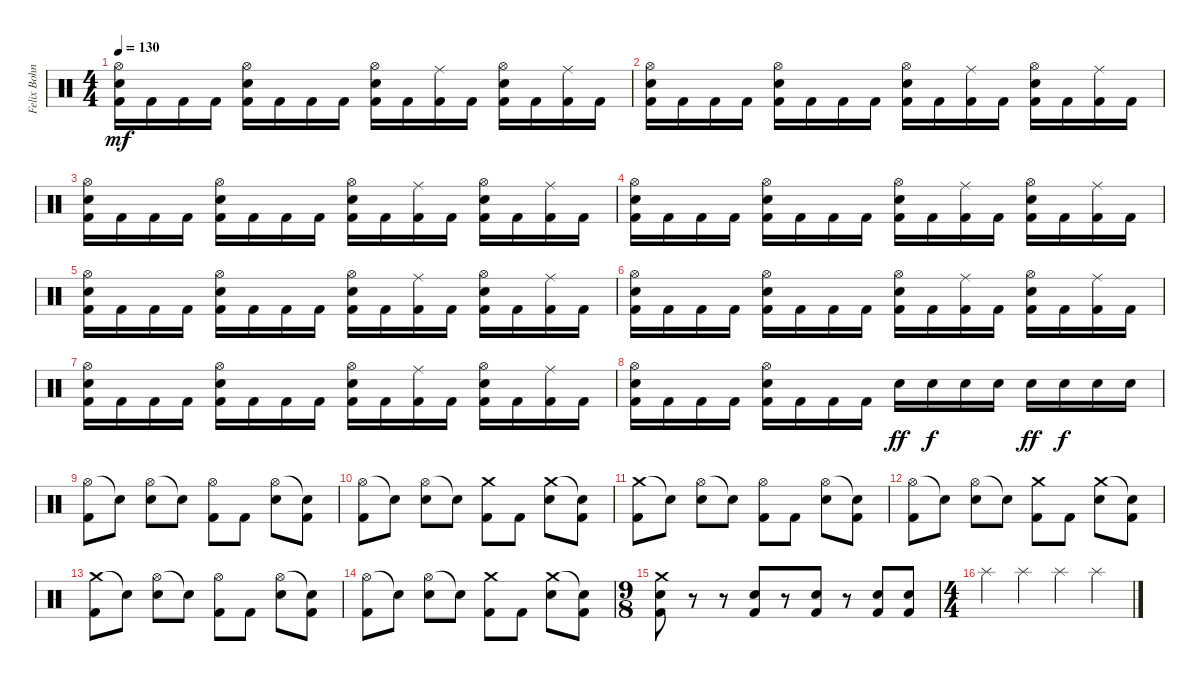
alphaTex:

\track ("Felix Bohnke" "Felix Bohn") {instrument percussion}
\staff {score}
\articulation defaults
\ts (4 4)
\tempo 130
\clef neutral
\ks c
("Hi-Hat (open)" "Electric Snare (hit)" "Kick (hit) 2").16{dy mf} "Kick (hit) 2".16 "Kick (hit) 2".16 "Kick (hit) 2".16 ("Hi-Hat (open)" "Electric Snare (hit)" "Kick (hit) 2").16 "Kick (hit) 2".16 "Kick (hit) 2".16 "Kick (hit) 2".16 ("Hi-Hat (open)" "Electric Snare (hit)" "Kick (hit) 2").16 "Kick (hit) 2".16 ("Ride (middle)" "Kick (hit) 2").16 "Kick (hit) 2".16 ("Hi-Hat (open)" "Electric Snare (hit)" "Kick (hit) 2").16 "Kick (hit) 2".16 ("Ride (middle)" "Kick (hit) 2").16 "Kick (hit) 2".16 |
("Hi-Hat (open)" "Electric Snare (hit)" "Kick (hit) 2").16 "Kick (hit) 2".16 "Kick (hit) 2".16 "Kick (hit) 2".16 ("Hi-Hat (open)" "Electric Snare (hit)" "Kick (hit) 2").16 "Kick (hit) 2".16 "Kick (hit) 2".16 "Kick (hit) 2".16 ("Hi-Hat (open)" "Electric Snare (hit)" "Kick (hit) 2").16 "Kick (hit) 2".16 ("Ride (middle)" "Kick (hit) 2").16 "Kick (hit) 2".16 ("Hi-Hat (open)" "Electric Snare (hit)" "Kick (hit) 2").16 "Kick (hit) 2".16 ("Ride (middle)" "Kick (hit) 2").16 "Kick (hit) 2".16 |
("Hi-Hat (open)" "Electric Snare (hit)" "Kick (hit) 2").16 "Kick (hit) 2".16 "Kick (hit) 2".16 "Kick (hit) 2".16 ("Hi-Hat (open)" "Electric Snare (hit)" "Kick (hit) 2").16 "Kick (hit) 2".16 "Kick (hit) 2".16 "Kick (hit) 2".16 ("Hi-Hat (open)" "Electric Snare (hit)" "Kick (hit) 2").16 "Kick (hit) 2".16 ("Ride (middle)" "Kick (hit) 2").16 "Kick (hit) 2".16 ("Hi-Hat (open)" "Electric Snare (hit)" "Kick (hit) 2").16 "Kick (hit) 2".16 ("Ride (middle)" "Kick (hit) 2").16 "Kick (hit) 2".16 |
("Hi-Hat (open)" "Electric Snare (hit)" "Kick (hit) 2").16 "Kick (hit) 2".16 "Kick (hit) 2".16 "Kick (hit) 2".16 ("Hi-Hat (open)" "Electric Snare (hit)" "Kick (hit) 2").16 "Kick (hit) 2".16 "Kick (hit) 2".16 "Kick (hit) 2".16 ("Hi-Hat (open)" "Electric Snare (hit)" "Kick (hit) 2").16 "Kick (hit) 2".16 ("Ride (middle)" "Kick (hit) 2").16 "Kick (hit) 2".16 ("Hi-Hat (open)" "Electric Snare (hit)" "Kick (hit) 2").16 "Kick (hit) 2".16 ("Ride (middle)" "Kick (hit) 2").16 "Kick (hit) 2".16 |
("Hi-Hat (open)" "Electric Snare (hit)" "Kick (hit) 2").16 "Kick (hit) 2".16 "Kick (hit) 2".16 "Kick (hit) 2".16 ("Hi-Hat (open)" "Electric Snare (hit)" "Kick (hit) 2").16 "Kick (hit) 2".16 "Kick (hit) 2".16 "Kick (hit) 2".16 ("Hi-Hat (open)" "Electric Snare (hit)" "Kick (hit) 2").16 "Kick (hit) 2".16 ("Ride (middle)" "Kick (hit) 2").16 "Kick (hit) 2".16 ("Hi-Hat (open)" "Electric Snare (hit)" "Kick (hit) 2").16 "Kick (hit) 2".16 ("Ride (middle)" "Kick (hit) 2").16 "Kick (hit) 2".16 |
("Hi-Hat (open)" "Electric Snare (hit)" "Kick (hit) 2").16 "Kick (hit) 2".16 "Kick (hit) 2".16 "Kick (hit) 2".16 ("Hi-Hat (open)" "Electric Snare (hit)" "Kick (hit) 2").16 "Kick (hit) 2".16 "Kick (hit) 2".16 "Kick (hit) 2".16 ("Hi-Hat (open)" "Electric Snare (hit)" "Kick (hit) 2").16 "Kick (hit) 2".16 ("Ride (middle)" "Kick (hit) 2").16 "Kick (hit) 2".16 ("Hi-Hat (open)" "Electric Snare (hit)" "Kick (hit) 2").16 "Kick (hit) 2".16 ("Ride (middle)" "Kick (hit) 2").16 "Kick (hit) 2".16 |
("Hi-Hat (open)" "Electric Snare (hit)" "Kick (hit) 2").16 "Kick (hit) 2".16 "Kick (hit) 2".16 "Kick (hit) 2".16 ("Hi-Hat (open)" "Electric Snare (hit)" "Kick (hit) 2").16 "Kick (hit) 2".16 "Kick (hit) 2".16 "Kick (hit) 2".16 ("Hi-Hat (open)" "Electric Snare (hit)" "Kick (hit) 2").16 "Kick (hit) 2".16 ("Ride (middle)" "Kick (hit) 2").16 "Kick (hit) 2".16 ("Hi-Hat (open)" "Electric Snare (hit)" "Kick (hit) 2").16 "Kick (hit) 2".16 ("Ride (middle)" "Kick (hit) 2").16 "Kick (hit) 2".16 |
("Hi-Hat (open)" "Electric Snare (hit)" "Kick (hit) 2").16 "Kick (hit) 2".16 "Kick (hit) 2".16 "Kick (hit) 2".16 ("Hi-Hat (open)" "Electric Snare (hit)" "Kick (hit) 2").16 "Kick (hit) 2".16 "Kick (hit) 2".16 "Kick (hit) 2".16 "Electric Snare (hit)".16{dy ff} "Electric Snare (hit)".16{dy f} "Electric Snare (hit)".16 "Electric Snare (hit)".16 "Electric Snare (hit)".16{dy ff} "Electric Snare (hit)".16{dy f} "Electric Snare (hit)".16 "Electric Snare (hit)".16 |
("Hi-Hat (open)" "Kick (hit) 2").8 "Snare (hit)"{t}.8 ("Hi-Hat (open)" "Electric Snare (hit)").8 "Snare (hit)"{t}.8 ("Hi-Hat (open)" "Kick (hit) 2").8 "Kick (hit) 2".8 ("Hi-Hat (open)" "Electric Snare (hit)").8 ("Snare (hit)"{t} "Kick (hit) 2").8 |
("Hi-Hat (open)" "Kick (hit) 2").8 "Snare (hit)"{t}.8 ("Hi-Hat (open)" "Electric Snare (hit)").8 "Snare (hit)"{t}.8 ("Crash medium (hit)" "Kick (hit) 2").8 "Kick (hit) 2".8 ("Crash medium (hit)" "Electric Snare (hit)").8 ("Snare (hit)"{t} "Kick (hit) 2").8 |
("Crash medium (hit)" "Kick (hit) 2").8 "Snare (hit)"{t}.8 ("Hi-Hat (open)" "Electric Snare (hit)").8 "Snare (hit)"{t}.8 ("Hi-Hat (open)" "Kick (hit) 2").8 "Kick (hit) 2".8 ("Hi-Hat (open)" "Electric Snare (hit)").8 ("Snare (hit)"{t} "Kick (hit) 2").8 |
("Hi-Hat (open)" "Kick (hit) 2").8 "Snare (hit)"{t}.8 ("Hi-Hat (open)" "Electric Snare (hit)").8 "Snare (hit)"{t}.8 ("Crash medium (hit)" "Kick (hit) 2").8 "Kick (hit) 2".8 ("Crash medium (hit)" "Electric Snare (hit)").8 ("Snare (hit)"{t} "Kick (hit) 2").8 |
("Crash medium (hit)" "Kick (hit) 2").8 "Snare (hit)"{t}.8 ("Hi-Hat (open)" "Electric Snare (hit)").8 "Snare (hit)"{t}.8 ("Hi-Hat (open)" "Kick (hit) 2").8 "Kick (hit) 2".8 ("Hi-Hat (open)" "Electric Snare (hit)").8 ("Snare (hit)"{t} "Kick (hit) 2").8 |
("Hi-Hat (open)" "Kick (hit) 2").8 "Snare (hit)"{t}.8 ("Hi-Hat (open)" "Electric Snare (hit)").8 "Snare (hit)"{t}.8 ("Crash medium (hit)" "Kick (hit) 2").8 "Kick (hit) 2".8 ("Crash medium (hit)" "Electric Snare (hit)").8 ("Snare (hit)"{t} "Kick (hit) 2").8 |
\ts (9 8)
("Crash medium (hit)" "Electric Snare (hit)" "Kick (hit) 2").8 r.8 r.8 ("Electric Snare (hit)" "Kick (hit) 2").8 r.8 ("Electric Snare (hit)" "Kick (hit) 2").8 r.8 ("Electric Snare (hit)" "Kick (hit) 2").8 ("Electric Snare (hit)" "Kick (hit) 2").8 |
\ts (4 4)
"Splash (hit)".4 "Splash (hit)".4 "Splash (hit)".4 "Splash (hit)".4
